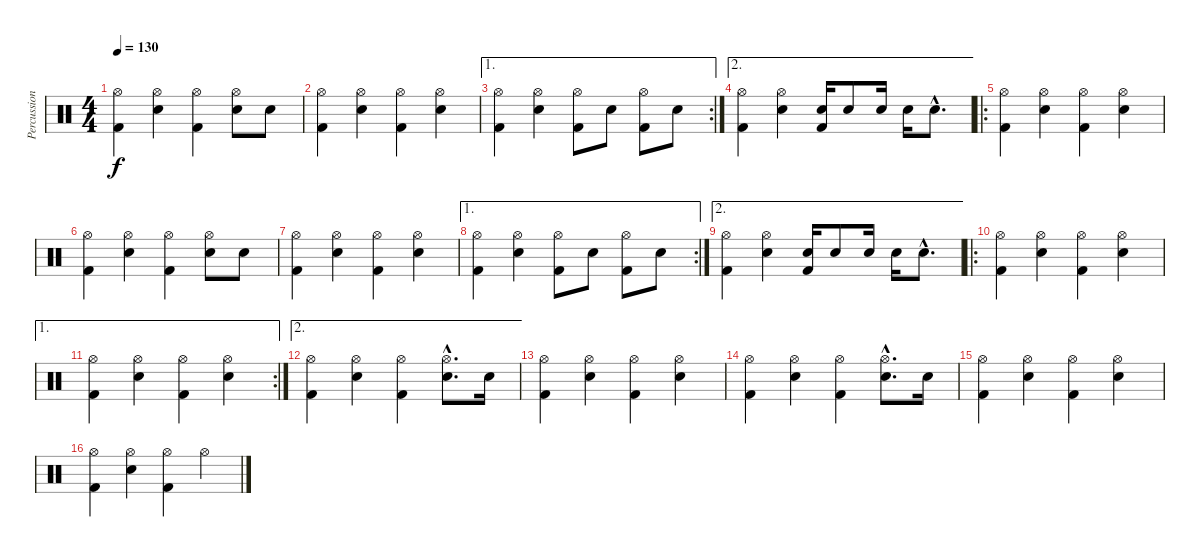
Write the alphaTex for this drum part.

\track ("Percussion" "Percussion") {instrument percussion}
\staff {score}
\articulation defaults
\ts (4 4)
\tempo 130
\clef neutral
\ks c
("Hi-Hat (open)" "Kick (hit) 2").4{dy f} ("Hi-Hat (open)" "Electric Snare (hit)").4 ("Hi-Hat (open)" "Kick (hit) 2").4 ("Hi-Hat (open)" "Electric Snare (hit)").8 "Electric Snare (hit)".8 |
("Hi-Hat (open)" "Kick (hit) 2").4 ("Hi-Hat (open)" "Electric Snare (hit)").4 ("Hi-Hat (open)" "Kick (hit) 2").4 ("Hi-Hat (open)" "Electric Snare (hit)").4 |
\ae 1
\rc 2
("Hi-Hat (open)" "Kick (hit) 2").4 ("Hi-Hat (open)" "Electric Snare (hit)").4 ("Hi-Hat (open)" "Kick (hit) 2").8 "Electric Snare (hit)".8 ("Hi-Hat (open)" "Kick (hit) 2").8 "Electric Snare (hit)".8 |
\ae 2
("Hi-Hat (open)" "Kick (hit) 2").4 ("Hi-Hat (open)" "Electric Snare (hit)").4 ("Electric Snare (hit)" "Kick (hit) 2").16 "Electric Snare (hit)".8 "Electric Snare (hit)".16 "Electric Snare (hit)".16 "Electric Snare (hit)"{hac}.8{d} |
\ro
("Hi-Hat (open)" "Kick (hit) 2").4 ("Hi-Hat (open)" "Electric Snare (hit)").4 ("Hi-Hat (open)" "Kick (hit) 2").4 ("Hi-Hat (open)" "Electric Snare (hit)").4 |
("Hi-Hat (open)" "Kick (hit) 2").4 ("Hi-Hat (open)" "Electric Snare (hit)").4 ("Hi-Hat (open)" "Kick (hit) 2").4 ("Hi-Hat (open)" "Electric Snare (hit)").8 "Electric Snare (hit)".8 |
("Hi-Hat (open)" "Kick (hit) 2").4 ("Hi-Hat (open)" "Electric Snare (hit)").4 ("Hi-Hat (open)" "Kick (hit) 2").4 ("Hi-Hat (open)" "Electric Snare (hit)").4 |
\ae 1
\rc 2
("Hi-Hat (open)" "Kick (hit) 2").4 ("Hi-Hat (open)" "Electric Snare (hit)").4 ("Hi-Hat (open)" "Kick (hit) 2").8 "Electric Snare (hit)".8 ("Hi-Hat (open)" "Kick (hit) 2").8 "Electric Snare (hit)".8 |
\ae 2
("Hi-Hat (open)" "Kick (hit) 2").4 ("Hi-Hat (open)" "Electric Snare (hit)").4 ("Electric Snare (hit)" "Kick (hit) 2").16 "Electric Snare (hit)".8 "Electric Snare (hit)".16 "Electric Snare (hit)".16 "Electric Snare (hit)"{hac}.8{d} |
\ro
("Hi-Hat (open)" "Kick (hit) 2").4 ("Hi-Hat (open)" "Electric Snare (hit)").4 ("Hi-Hat (open)" "Kick (hit) 2").4 ("Hi-Hat (open)" "Electric Snare (hit)").4 |
\ae 1
\rc 2
("Hi-Hat (open)" "Kick (hit) 2").4 ("Hi-Hat (open)" "Electric Snare (hit)").4 ("Hi-Hat (open)" "Kick (hit) 2").4 ("Hi-Hat (open)" "Electric Snare (hit)").4 |
\ae 2
("Hi-Hat (open)" "Kick (hit) 2").4 ("Hi-Hat (open)" "Electric Snare (hit)").4 ("Hi-Hat (open)" "Kick (hit) 2").4 ("Hi-Hat (open)"{hac} "Electric Snare (hit)"{hac}).8{d} "Electric Snare (hit)".16 |
("Hi-Hat (open)" "Kick (hit) 2").4 ("Hi-Hat (open)" "Electric Snare (hit)").4 ("Hi-Hat (open)" "Kick (hit) 2").4 ("Hi-Hat (open)" "Electric Snare (hit)").4 |
("Hi-Hat (open)" "Kick (hit) 2").4 ("Hi-Hat (open)" "Electric Snare (hit)").4 ("Hi-Hat (open)" "Kick (hit) 2").4 ("Hi-Hat (open)"{hac} "Electric Snare (hit)"{hac}).8{d} "Electric Snare (hit)".16 |
("Hi-Hat (open)" "Kick (hit) 2").4 ("Hi-Hat (open)" "Electric Snare (hit)").4 ("Hi-Hat (open)" "Kick (hit) 2").4 ("Hi-Hat (open)" "Electric Snare (hit)").4 |
("Hi-Hat (open)" "Kick (hit) 2").4 ("Hi-Hat (open)" "Electric Snare (hit)").4 ("Hi-Hat (open)" "Kick (hit) 2").4 "Hi-Hat (open)".4
